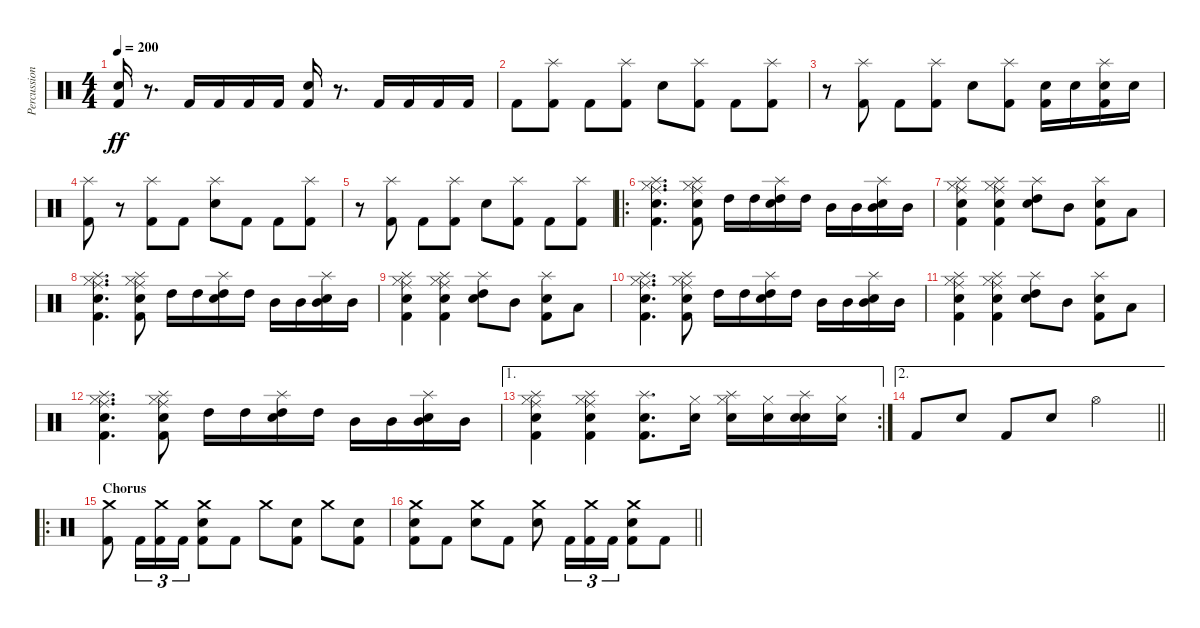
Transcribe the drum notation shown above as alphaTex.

\track ("Percussion" "Percussion") {instrument percussion}
\staff {score}
\articulation defaults
\ts (4 4)
\tempo 200
\clef neutral
\ks c
("Electric Snare (hit)" "Kick (hit) 2").16{dy ff} r.8{d} "Kick (hit) 2".16 "Kick (hit) 2".16 "Kick (hit) 2".16 "Kick (hit) 2".16 ("Electric Snare (hit)" "Kick (hit) 2").16 r.8{d} "Kick (hit) 2".16 "Kick (hit) 2".16 "Kick (hit) 2".16 "Kick (hit) 2".16 |
"Kick (hit) 2".8 ("Splash (hit)" "Kick (hit) 2").8 "Kick (hit) 2".8 ("Splash (hit)" "Kick (hit) 2").8 "Electric Snare (hit)".8 ("Splash (hit)" "Kick (hit) 2").8 "Kick (hit) 2".8 ("Splash (hit)" "Kick (hit) 2").8 |
r.8 ("Splash (hit)" "Kick (hit) 2").8 "Kick (hit) 2".8 ("Splash (hit)" "Kick (hit) 2").8 "Electric Snare (hit)".8 ("Splash (hit)" "Kick (hit) 2").8 ("Electric Snare (hit)" "Kick (hit) 2").16 "Electric Snare (hit)".16 ("Splash (hit)" "Electric Snare (hit)" "Kick (hit) 2").16 "Electric Snare (hit)".16 |
("Splash (hit)" "Kick (hit) 2").8 r.8 ("Splash (hit)" "Kick (hit) 2").8 "Kick (hit) 2".8 ("Splash (hit)" "Electric Snare (hit)").8 "Kick (hit) 2".8 "Kick (hit) 2".8 ("Splash (hit)" "Kick (hit) 2").8 |
r.8 ("Splash (hit)" "Kick (hit) 2").8 "Kick (hit) 2".8 ("Splash (hit)" "Kick (hit) 2").8 "Electric Snare (hit)".8 ("Splash (hit)" "Kick (hit) 2").8 "Kick (hit) 2".8 ("Splash (hit)" "Kick (hit) 2").8 |
\ro
("Splash (hit)" "Ride (middle)" "Hi-Hat (closed)" "Electric Snare (hit)" "Kick (hit) 2").4{d} ("Splash (hit)" "Ride (middle)" "Hi-Hat (closed)" "Electric Snare (hit)" "Kick (hit) 2").8 "High Tom (hit)".16 "High Tom (hit)".16 ("Splash (hit)" "Electric Snare (hit)" "High Tom (hit)").16 "High Tom (hit)".16 "Mid Tom (hit)".16 "Mid Tom (hit)".16 ("Splash (hit)" "Electric Snare (hit)" "Mid Tom (hit)").16 "Mid Tom (hit)".16 |
("Splash (hit)" "Ride (middle)" "Hi-Hat (closed)" "Electric Snare (hit)" "Kick (hit) 2").4 ("Splash (hit)" "Ride (middle)" "Hi-Hat (closed)" "Electric Snare (hit)" "Kick (hit) 2").4 ("Splash (hit)" "Electric Snare (hit)" "High Tom (hit)").8 "Mid Tom (hit)".8 ("Splash (hit)" "Electric Snare (hit)" "Kick (hit) 2").8 "Low Tom (hit)".8 |
("Splash (hit)" "Ride (middle)" "Hi-Hat (closed)" "Electric Snare (hit)" "Kick (hit) 2").4{d} ("Splash (hit)" "Ride (middle)" "Hi-Hat (closed)" "Electric Snare (hit)" "Kick (hit) 2").8 "High Tom (hit)".16 "High Tom (hit)".16 ("Splash (hit)" "Electric Snare (hit)" "High Tom (hit)").16 "High Tom (hit)".16 "Mid Tom (hit)".16 "Mid Tom (hit)".16 ("Splash (hit)" "Electric Snare (hit)" "Mid Tom (hit)").16 "Mid Tom (hit)".16 |
("Splash (hit)" "Ride (middle)" "Hi-Hat (closed)" "Electric Snare (hit)" "Kick (hit) 2").4 ("Splash (hit)" "Ride (middle)" "Hi-Hat (closed)" "Electric Snare (hit)" "Kick (hit) 2").4 ("Splash (hit)" "Electric Snare (hit)" "High Tom (hit)").8 "Mid Tom (hit)".8 ("Splash (hit)" "Electric Snare (hit)" "Kick (hit) 2").8 "Low Tom (hit)".8 |
("Splash (hit)" "Ride (middle)" "Hi-Hat (closed)" "Electric Snare (hit)" "Kick (hit) 2").4{d} ("Splash (hit)" "Ride (middle)" "Hi-Hat (closed)" "Electric Snare (hit)" "Kick (hit) 2").8 "High Tom (hit)".16 "High Tom (hit)".16 ("Splash (hit)" "Electric Snare (hit)" "High Tom (hit)").16 "High Tom (hit)".16 "Mid Tom (hit)".16 "Mid Tom (hit)".16 ("Splash (hit)" "Electric Snare (hit)" "Mid Tom (hit)").16 "Mid Tom (hit)".16 |
("Splash (hit)" "Ride (middle)" "Hi-Hat (closed)" "Electric Snare (hit)" "Kick (hit) 2").4 ("Splash (hit)" "Ride (middle)" "Hi-Hat (closed)" "Electric Snare (hit)" "Kick (hit) 2").4 ("Splash (hit)" "Electric Snare (hit)" "High Tom (hit)").8 "Mid Tom (hit)".8 ("Splash (hit)" "Electric Snare (hit)" "Kick (hit) 2").8 "Low Tom (hit)".8 |
("Splash (hit)" "Ride (middle)" "Hi-Hat (closed)" "Electric Snare (hit)" "Kick (hit) 2").4{d} ("Splash (hit)" "Ride (middle)" "Hi-Hat (closed)" "Electric Snare (hit)" "Kick (hit) 2").8 "High Tom (hit)".16 "High Tom (hit)".16 ("Splash (hit)" "Electric Snare (hit)" "High Tom (hit)").16 "High Tom (hit)".16 "Mid Tom (hit)".16 "Mid Tom (hit)".16 ("Splash (hit)" "Electric Snare (hit)" "Mid Tom (hit)").16 "Mid Tom (hit)".16 |
\ae 1
\rc 2
("Splash (hit)" "Ride (middle)" "Hi-Hat (closed)" "Electric Snare (hit)" "Kick (hit) 2").4 ("Splash (hit)" "Ride (middle)" "Hi-Hat (closed)" "Electric Snare (hit)" "Kick (hit) 2").4 ("Splash (hit)" "Electric Snare (hit)" "Kick (hit) 2").8{d} ("Hi-Hat (closed)" "Electric Snare (hit)").16 ("Splash (hit)" "Hi-Hat (closed)" "Electric Snare (hit)").16 ("Hi-Hat (closed)" "Electric Snare (hit)").16 ("Splash (hit)" "Snare (hit)" "Electric Snare (hit)").16 ("Hi-Hat (closed)" "Electric Snare (hit)").16 |
\ae 2
\barLineRight lightlight "Kick (hit) 2".8 "Electric Snare (hit)".8 "Kick (hit) 2".8 "Electric Snare (hit)".8 "Hi-Hat (open)".2
|
\ro
\section ("" "Chorus")
("Crash medium (hit)" "Kick (hit) 2").8 "Kick (hit) 2".16{tu (3 2)} ("Crash medium (hit)" "Kick (hit) 2").16{tu (3 2)} "Kick (hit) 2".16{tu (3 2)} ("Crash medium (hit)" "Electric Snare (hit)" "Kick (hit) 2").8 "Kick (hit) 2".8 "Crash medium (hit)".8 ("Electric Snare (hit)" "Kick (hit) 2").8 "Crash medium (hit)".8 ("Electric Snare (hit)" "Kick (hit) 2").8 |
\barLineRight lightlight
("Crash medium (hit)" "Electric Snare (hit)" "Kick (hit) 2").8 "Kick (hit) 2".8 ("Crash medium (hit)" "Electric Snare (hit)").8 "Kick (hit) 2".8 ("Crash medium (hit)" "Electric Snare (hit)").8 "Kick (hit) 2".16{tu (3 2)} ("Crash medium (hit)" "Kick (hit) 2").16{tu (3 2)} "Kick (hit) 2".16{tu (3 2)} ("Crash medium (hit)" "Electric Snare (hit)" "Kick (hit) 2").8 "Kick (hit) 2".8
